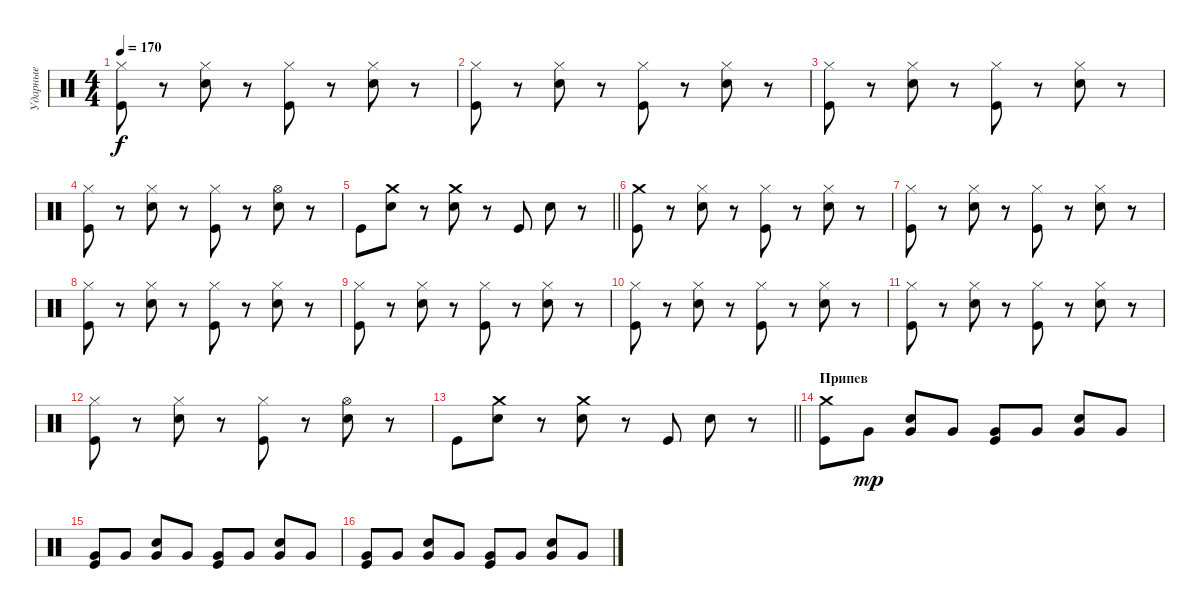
\track ("Ударные" "Ударные") {instrument percussion}
\staff {score}
\articulation defaults
\ts (4 4)
\tempo 170
\clef neutral
\ks c
("Hi-Hat (closed)" "Kick (hit)").8{dy f} r.8 ("Hi-Hat (closed)" "Electric Snare (hit)").8 r.8 ("Hi-Hat (closed)" "Kick (hit)").8 r.8 ("Hi-Hat (closed)" "Electric Snare (hit)").8 r.8 |
("Hi-Hat (closed)" "Kick (hit)").8 r.8 ("Hi-Hat (closed)" "Electric Snare (hit)").8 r.8 ("Hi-Hat (closed)" "Kick (hit)").8 r.8 ("Hi-Hat (closed)" "Electric Snare (hit)").8 r.8 |
("Hi-Hat (closed)" "Kick (hit)").8 r.8 ("Hi-Hat (closed)" "Electric Snare (hit)").8 r.8 ("Hi-Hat (closed)" "Kick (hit)").8 r.8 ("Hi-Hat (closed)" "Electric Snare (hit)").8 r.8 |
("Hi-Hat (closed)" "Kick (hit)").8 r.8 ("Hi-Hat (closed)" "Electric Snare (hit)").8 r.8 ("Hi-Hat (closed)" "Kick (hit)").8 r.8 ("Hi-Hat (open)" "Electric Snare (hit)").8 r.8 |
\barLineRight lightlight "Kick (hit)".8
("Crash medium (hit)" "Electric Snare (hit)").8 r.8 ("Crash medium (hit)" "Electric Snare (hit)").8 r.8 "Kick (hit)".8 "Electric Snare (hit)".8 r.8 |
\section ("" " ")
("Crash medium (hit)" "Kick (hit)").8 r.8 ("Hi-Hat (closed)" "Electric Snare (hit)").8 r.8 ("Hi-Hat (closed)" "Kick (hit)").8 r.8 ("Hi-Hat (closed)" "Electric Snare (hit)").8 r.8 |
("Hi-Hat (closed)" "Kick (hit)").8 r.8 ("Hi-Hat (closed)" "Electric Snare (hit)").8 r.8 ("Hi-Hat (closed)" "Kick (hit)").8 r.8 ("Hi-Hat (closed)" "Electric Snare (hit)").8 r.8 |
("Hi-Hat (closed)" "Kick (hit)").8 r.8 ("Hi-Hat (closed)" "Electric Snare (hit)").8 r.8 ("Hi-Hat (closed)" "Kick (hit)").8 r.8 ("Hi-Hat (closed)" "Electric Snare (hit)").8 r.8 |
("Hi-Hat (closed)" "Kick (hit)").8 r.8 ("Hi-Hat (closed)" "Electric Snare (hit)").8 r.8 ("Hi-Hat (closed)" "Kick (hit)").8 r.8 ("Hi-Hat (closed)" "Electric Snare (hit)").8 r.8 |
("Hi-Hat (closed)" "Kick (hit)").8 r.8 ("Hi-Hat (closed)" "Electric Snare (hit)").8 r.8 ("Hi-Hat (closed)" "Kick (hit)").8 r.8 ("Hi-Hat (closed)" "Electric Snare (hit)").8 r.8 |
("Hi-Hat (closed)" "Kick (hit)").8 r.8 ("Hi-Hat (closed)" "Electric Snare (hit)").8 r.8 ("Hi-Hat (closed)" "Kick (hit)").8 r.8 ("Hi-Hat (closed)" "Electric Snare (hit)").8 r.8 |
("Hi-Hat (closed)" "Kick (hit)").8 r.8 ("Hi-Hat (closed)" "Electric Snare (hit)").8 r.8 ("Hi-Hat (closed)" "Kick (hit)").8 r.8 ("Hi-Hat (open)" "Electric Snare (hit)").8 r.8 |
\barLineRight lightlight "Kick (hit)".8
("Crash medium (hit)" "Electric Snare (hit)").8 r.8 ("Crash medium (hit)" "Electric Snare (hit)").8 r.8 "Kick (hit)".8 "Electric Snare (hit)".8 r.8 |
\section ("" "Припев")
("Crash medium (hit)" "Kick (hit)").8 "Very Low Tom (hit)".8{dy mp} ("Very Low Tom (hit)" "Electric Snare (hit)").8 "Very Low Tom (hit)".8 ("Very Low Tom (hit)" "Kick (hit)").8 "Very Low Tom (hit)".8 ("Very Low Tom (hit)" "Electric Snare (hit)").8 "Very Low Tom (hit)".8 |
("Very Low Tom (hit)" "Kick (hit)").8 "Very Low Tom (hit)".8 ("Very Low Tom (hit)" "Electric Snare (hit)").8 "Very Low Tom (hit)".8 ("Very Low Tom (hit)" "Kick (hit)").8 "Very Low Tom (hit)".8 ("Very Low Tom (hit)" "Electric Snare (hit)").8 "Very Low Tom (hit)".8 |
("Very Low Tom (hit)" "Kick (hit)").8 "Very Low Tom (hit)".8 ("Very Low Tom (hit)" "Electric Snare (hit)").8 "Very Low Tom (hit)".8 ("Very Low Tom (hit)" "Kick (hit)").8 "Very Low Tom (hit)".8 ("Very Low Tom (hit)" "Electric Snare (hit)").8 "Very Low Tom (hit)".8
